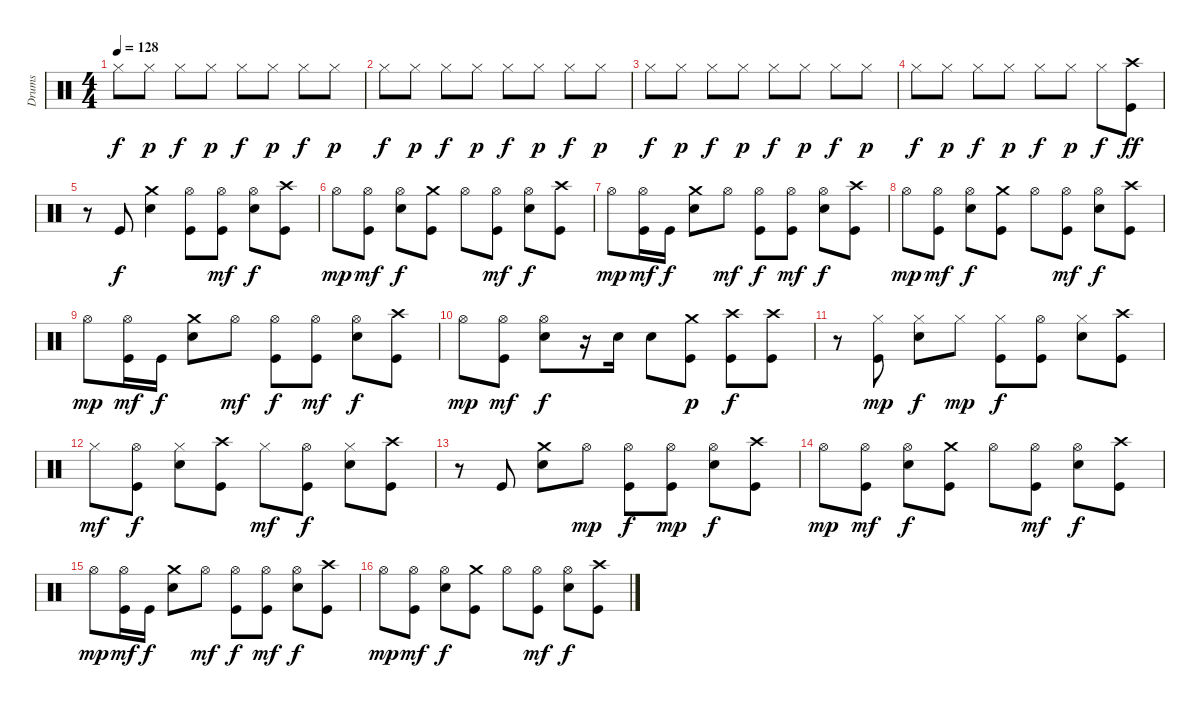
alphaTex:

\track ("Drums" "Drums") {instrument percussion}
\staff {score}
\articulation defaults
\ts (4 4)
\tempo 128
\clef neutral
\ks c "Hi-Hat (closed)".8{dy f} "Hi-Hat (closed)".8{dy p} "Hi-Hat (closed)".8{dy f} "Hi-Hat (closed)".8{dy p} "Hi-Hat (closed)".8{dy f} "Hi-Hat (closed)".8{dy p} "Hi-Hat (closed)".8{dy f} "Hi-Hat (closed)".8{dy p}
|
"Hi-Hat (closed)".8{dy f} "Hi-Hat (closed)".8{dy p} "Hi-Hat (closed)".8{dy f} "Hi-Hat (closed)".8{dy p} "Hi-Hat (closed)".8{dy f} "Hi-Hat (closed)".8{dy p} "Hi-Hat (closed)".8{dy f} "Hi-Hat (closed)".8{dy p} |
"Hi-Hat (closed)".8{dy f} "Hi-Hat (closed)".8{dy p} "Hi-Hat (closed)".8{dy f} "Hi-Hat (closed)".8{dy p} "Hi-Hat (closed)".8{dy f} "Hi-Hat (closed)".8{dy p} "Hi-Hat (closed)".8{dy f} "Hi-Hat (closed)".8{dy p} |
"Hi-Hat (closed)".8{dy f} "Hi-Hat (closed)".8{dy p} "Hi-Hat (closed)".8{dy f} "Hi-Hat (closed)".8{dy p} "Hi-Hat (closed)".8{dy f} "Hi-Hat (closed)".8{dy p} "Hi-Hat (closed)".8{dy f} ("Crash high (hit)" "Kick (hit)").8{dy ff} |
r.8 "Kick (hit)".8{dy f} ("Crash medium (hit)" "Snare (hit) 2").4 ("Hi-Hat (open)" "Kick (hit)").8 ("Hi-Hat (open)" "Kick (hit)").8{dy mf} ("Hi-Hat (open)" "Snare (hit) 2").8{dy f} ("Crash high (hit)" "Kick (hit)").8 |
"Hi-Hat (open)".8{dy mp} ("Hi-Hat (open)" "Kick (hit)").8{dy mf} ("Hi-Hat (open)" "Snare (hit) 2").8{dy f} ("Crash medium (hit)" "Kick (hit)").8 "Hi-Hat (open)".8 ("Hi-Hat (open)" "Kick (hit)").8{dy mf} ("Hi-Hat (open)" "Snare (hit) 2").8{dy f} ("Crash high (hit)" "Kick (hit)").8 |
"Hi-Hat (open)".8{dy mp} ("Hi-Hat (open)" "Kick (hit)").16{dy mf} "Kick (hit)".16{dy f} ("Crash medium (hit)" "Snare (hit) 2").8 "Hi-Hat (open)".8{dy mf} ("Hi-Hat (open)" "Kick (hit)").8{dy f} ("Hi-Hat (open)" "Kick (hit)").8{dy mf} ("Hi-Hat (open)" "Snare (hit) 2").8{dy f} ("Crash high (hit)" "Kick (hit)").8 |
"Hi-Hat (open)".8{dy mp} ("Hi-Hat (open)" "Kick (hit)").8{dy mf} ("Hi-Hat (open)" "Snare (hit) 2").8{dy f} ("Crash medium (hit)" "Kick (hit)").8 "Hi-Hat (open)".8 ("Hi-Hat (open)" "Kick (hit)").8{dy mf} ("Hi-Hat (open)" "Snare (hit) 2").8{dy f} ("Crash high (hit)" "Kick (hit)").8 |
"Hi-Hat (open)".8{dy mp} ("Hi-Hat (open)" "Kick (hit)").16{dy mf} "Kick (hit)".16{dy f} ("Crash medium (hit)" "Snare (hit) 2").8 "Hi-Hat (open)".8{dy mf} ("Hi-Hat (open)" "Kick (hit)").8{dy f} ("Hi-Hat (open)" "Kick (hit)").8{dy mf} ("Hi-Hat (open)" "Snare (hit) 2").8{dy f} ("Crash high (hit)" "Kick (hit)").8 |
"Hi-Hat (open)".8{dy mp} ("Hi-Hat (open)" "Kick (hit)").8{dy mf} ("Hi-Hat (open)" "Snare (hit) 2").8{dy f} r.16 "Snare (hit) 2".16 "Snare (hit) 2".8 ("Crash medium (hit)" "Kick (hit)").8{dy p} ("Crash high (hit)" "Kick (hit)").8{dy f} ("Crash high (hit)" "Kick (hit)").8 |
r.8 ("Hi-Hat (closed)" "Kick (hit)").8{dy mp} ("Hi-Hat (closed)" "Snare (hit) 2").8{dy f} "Hi-Hat (closed)".8{dy mp} ("Hi-Hat (closed)" "Kick (hit)").8{dy f} ("Hi-Hat (open)" "Kick (hit)").8 ("Hi-Hat (closed)" "Snare (hit) 2").8 ("Crash high (hit)" "Kick (hit)").8 |
"Hi-Hat (closed)".8{dy mf} ("Hi-Hat (open)" "Kick (hit)").8{dy f} ("Hi-Hat (closed)" "Snare (hit) 2").8 ("Crash high (hit)" "Kick (hit)").8 "Hi-Hat (closed)".8{dy mf} ("Hi-Hat (open)" "Kick (hit)").8{dy f} ("Hi-Hat (closed)" "Snare (hit) 2").8 ("Crash high (hit)" "Kick (hit)").8 |
r.8 "Kick (hit)".8 ("Crash medium (hit)" "Snare (hit) 2").8 "Hi-Hat (open)".8{dy mp} ("Hi-Hat (open)" "Kick (hit)").8{dy f} ("Hi-Hat (open)" "Kick (hit)").8{dy mp} ("Hi-Hat (open)" "Snare (hit) 2").8{dy f} ("Crash high (hit)" "Kick (hit)").8 |
"Hi-Hat (open)".8{dy mp} ("Hi-Hat (open)" "Kick (hit)").8{dy mf} ("Hi-Hat (open)" "Snare (hit) 2").8{dy f} ("Crash medium (hit)" "Kick (hit)").8 "Hi-Hat (open)".8 ("Hi-Hat (open)" "Kick (hit)").8{dy mf} ("Hi-Hat (open)" "Snare (hit) 2").8{dy f} ("Crash high (hit)" "Kick (hit)").8 |
"Hi-Hat (open)".8{dy mp} ("Hi-Hat (open)" "Kick (hit)").16{dy mf} "Kick (hit)".16{dy f} ("Crash medium (hit)" "Snare (hit) 2").8 "Hi-Hat (open)".8{dy mf} ("Hi-Hat (open)" "Kick (hit)").8{dy f} ("Hi-Hat (open)" "Kick (hit)").8{dy mf} ("Hi-Hat (open)" "Snare (hit) 2").8{dy f} ("Crash high (hit)" "Kick (hit)").8 |
"Hi-Hat (open)".8{dy mp} ("Hi-Hat (open)" "Kick (hit)").8{dy mf} ("Hi-Hat (open)" "Snare (hit) 2").8{dy f} ("Crash medium (hit)" "Kick (hit)").8 "Hi-Hat (open)".8 ("Hi-Hat (open)" "Kick (hit)").8{dy mf} ("Hi-Hat (open)" "Snare (hit) 2").8{dy f} ("Crash high (hit)" "Kick (hit)").8
